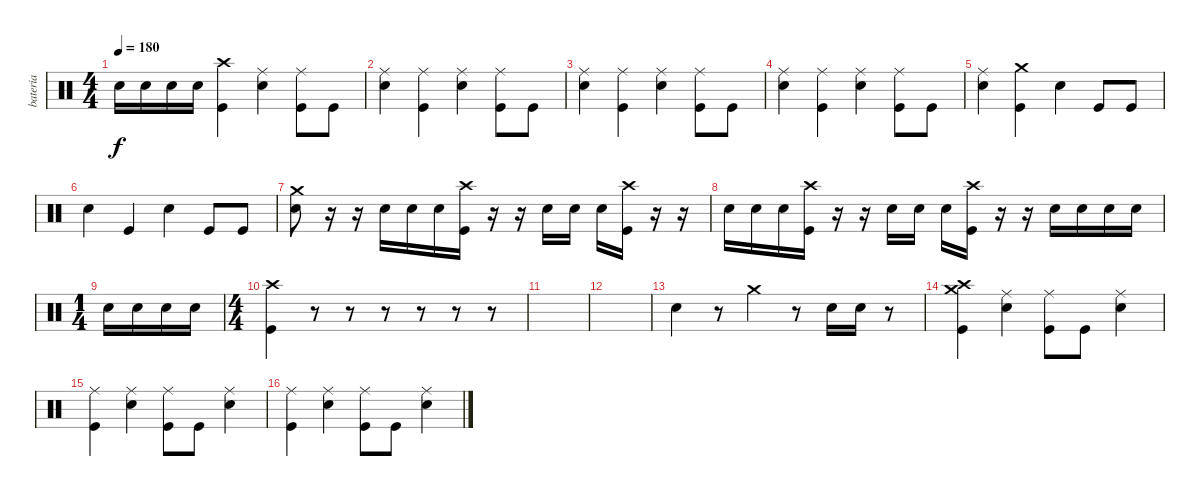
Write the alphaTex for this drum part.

\track ("bateria" "bateria") {instrument percussion}
\staff {score}
\articulation defaults
\ts (4 4)
\tempo 180
\clef neutral
\ks c "Electric Snare (hit)".16{dy f} "Electric Snare (hit)".16 "Electric Snare (hit)".16 "Electric Snare (hit)".16
("Crash high (hit)" "Kick (hit)").4 ("Ride (middle)" "Electric Snare (hit)").4 ("Ride (middle)" "Kick (hit)").8 "Kick (hit)".8 |
("Ride (middle)" "Electric Snare (hit)").4 ("Ride (middle)" "Kick (hit)").4 ("Ride (middle)" "Electric Snare (hit)").4 ("Ride (middle)" "Kick (hit)").8 "Kick (hit)".8 |
("Ride (middle)" "Electric Snare (hit)").4 ("Ride (middle)" "Kick (hit)").4 ("Ride (middle)" "Electric Snare (hit)").4 ("Ride (middle)" "Kick (hit)").8 "Kick (hit)".8 |
("Ride (middle)" "Electric Snare (hit)").4 ("Ride (middle)" "Kick (hit)").4 ("Ride (middle)" "Electric Snare (hit)").4 ("Ride (middle)" "Kick (hit)").8 "Kick (hit)".8 |
("Ride (middle)" "Electric Snare (hit)").4 ("Crash medium (hit)" "Kick (hit)").4 "Electric Snare (hit)".4 "Kick (hit)".8 "Kick (hit)".8 |
"Electric Snare (hit)".4 "Kick (hit)".4 "Electric Snare (hit)".4 "Kick (hit)".8 "Kick (hit)".8 |
("Crash medium (hit)" "Electric Snare (hit)").8 r.16 r.16 "Electric Snare (hit)".16 "Electric Snare (hit)".16 "Electric Snare (hit)".16 ("Crash high (hit)" "Kick (hit)").16 r.16 r.16 "Electric Snare (hit)".16 "Electric Snare (hit)".16 "Electric Snare (hit)".16 ("Crash high (hit)" "Kick (hit)").16 r.16 r.16 |
"Electric Snare (hit)".16 "Electric Snare (hit)".16 "Electric Snare (hit)".16 ("Crash high (hit)" "Kick (hit)").16 r.16 r.16 "Electric Snare (hit)".16 "Electric Snare (hit)".16 "Electric Snare (hit)".16 ("Crash high (hit)" "Kick (hit)").16 r.16 r.16 "Electric Snare (hit)".16 "Electric Snare (hit)".16 "Electric Snare (hit)".16 "Electric Snare (hit)".16 |
\ts (1 4)
"Electric Snare (hit)".16 "Electric Snare (hit)".16 "Electric Snare (hit)".16 "Electric Snare (hit)".16 |
\ts (4 4)
("Crash high (hit)" "Kick (hit)").4 r.8 r.8 r.8 r.8 r.8 r.8 |
|
|
"Electric Snare (hit)".4 r.8 "Crash medium (hit)".4 r.8 "Electric Snare (hit)".16 "Electric Snare (hit)".16 r.8 |
("Crash medium (hit)" "Crash high (hit)" "Kick (hit)").4 ("Ride (middle)" "Electric Snare (hit)").4 ("Ride (middle)" "Kick (hit)").8 "Kick (hit)".8 ("Ride (middle)" "Electric Snare (hit)").4 |
("Ride (middle)" "Kick (hit)").4 ("Ride (middle)" "Electric Snare (hit)").4 ("Ride (middle)" "Kick (hit)").8 "Kick (hit)".8 ("Ride (middle)" "Electric Snare (hit)").4 |
("Ride (middle)" "Kick (hit)").4 ("Ride (middle)" "Electric Snare (hit)").4 ("Ride (middle)" "Kick (hit)").8 "Kick (hit)".8 ("Ride (middle)" "Electric Snare (hit)").4
